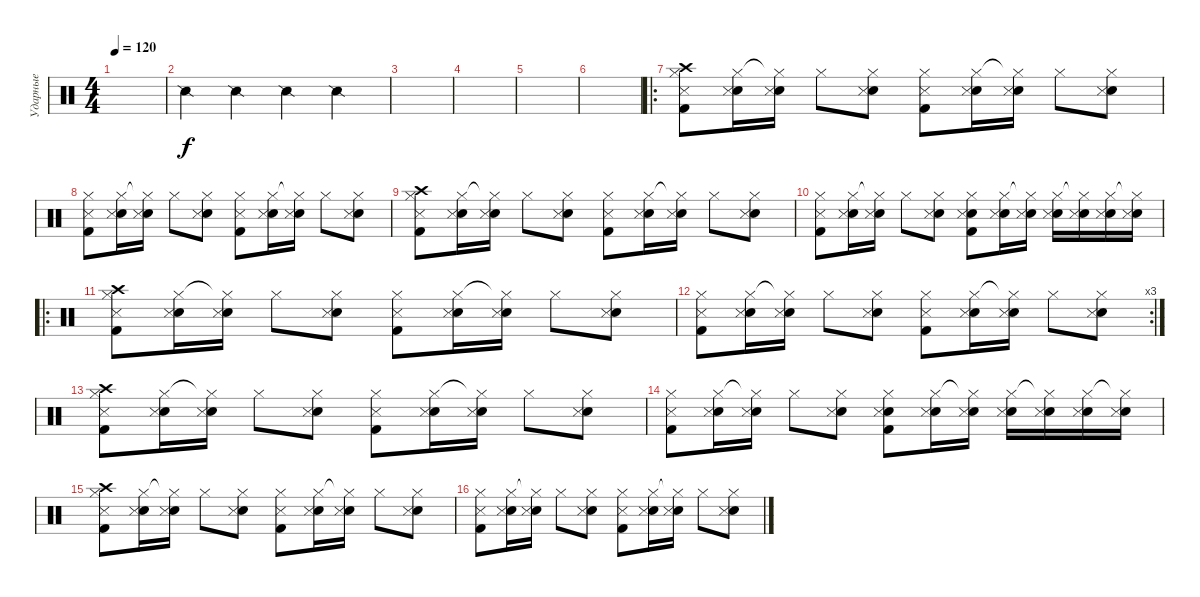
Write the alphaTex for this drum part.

\track ("Ударные" "Ударные") {instrument percussion}
\staff {score}
\articulation defaults
\ts (4 4)
\tempo 120
\clef neutral
\ks c
|
"Snare (side stick) 2".4 "Snare (side stick) 2".4 "Snare (side stick) 2".4 "Snare (side stick) 2".4 |
|
|
|
|
\ro
("Crash high (hit)" "Hi-Hat (closed)" "Kick (hit) 2" "Snare (side stick) 3").8 ("Hi-Hat (closed)" "Snare (hit) 2" "Snare (side stick) 3").16 ("Hi-Hat (closed)"{t} "Snare (hit) 2" "Snare (side stick) 3").16 "Hi-Hat (closed)".8 ("Hi-Hat (closed)" "Snare (hit) 2" "Snare (side stick) 3").8 ("Hi-Hat (closed)" "Kick (hit) 2" "Snare (side stick) 3").8 ("Hi-Hat (closed)" "Snare (hit) 2" "Snare (side stick) 3").16 ("Hi-Hat (closed)"{t} "Snare (hit) 2" "Snare (side stick) 3").16 "Hi-Hat (closed)".8 ("Hi-Hat (closed)" "Snare (hit) 2" "Snare (side stick) 3").8 |
("Hi-Hat (closed)" "Kick (hit) 2" "Snare (side stick) 3").8 ("Hi-Hat (closed)" "Snare (hit) 2" "Snare (side stick) 3").16 ("Hi-Hat (closed)"{t} "Snare (hit) 2" "Snare (side stick) 3").16 "Hi-Hat (closed)".8 ("Hi-Hat (closed)" "Snare (hit) 2" "Snare (side stick) 3").8 ("Hi-Hat (closed)" "Kick (hit) 2" "Snare (side stick) 3").8 ("Hi-Hat (closed)" "Snare (hit) 2" "Snare (side stick) 3").16 ("Hi-Hat (closed)"{t} "Snare (hit) 2" "Snare (side stick) 3").16 "Hi-Hat (closed)".8 ("Hi-Hat (closed)" "Snare (hit) 2" "Snare (side stick) 3").8 |
("Crash high (hit)" "Hi-Hat (closed)" "Kick (hit) 2" "Snare (side stick) 3").8 ("Hi-Hat (closed)" "Snare (hit) 2" "Snare (side stick) 3").16 ("Hi-Hat (closed)"{t} "Snare (hit) 2" "Snare (side stick) 3").16 "Hi-Hat (closed)".8 ("Hi-Hat (closed)" "Snare (hit) 2" "Snare (side stick) 3").8 ("Hi-Hat (closed)" "Kick (hit) 2" "Snare (side stick) 3").8 ("Hi-Hat (closed)" "Snare (hit) 2" "Snare (side stick) 3").16 ("Hi-Hat (closed)"{t} "Snare (hit) 2" "Snare (side stick) 3").16 "Hi-Hat (closed)".8 ("Hi-Hat (closed)" "Snare (hit) 2" "Snare (side stick) 3").8 |
("Hi-Hat (closed)" "Kick (hit) 2" "Snare (side stick) 3").8 ("Hi-Hat (closed)" "Snare (hit) 2" "Snare (side stick) 3").16 ("Hi-Hat (closed)"{t} "Snare (hit) 2" "Snare (side stick) 3").16 "Hi-Hat (closed)".8 ("Hi-Hat (closed)" "Snare (hit) 2" "Snare (side stick) 3").8 ("Hi-Hat (closed)" "Kick (hit) 2" "Snare (hit) 2" "Snare (side stick) 3").8 ("Hi-Hat (closed)" "Snare (hit) 2" "Snare (side stick) 3").16 ("Hi-Hat (closed)"{t} "Snare (hit) 2" "Snare (side stick) 3").16 ("Hi-Hat (closed)" "Snare (hit) 2" "Snare (side stick) 3").16 ("Hi-Hat (closed)"{t} "Snare (hit) 2" "Snare (side stick) 3").16 ("Hi-Hat (closed)" "Snare (hit) 2" "Snare (side stick) 3").16 ("Hi-Hat (closed)"{t} "Snare (hit) 2" "Snare (side stick) 3").16 |
\ro
("Crash high (hit)" "Hi-Hat (closed)" "Kick (hit) 2" "Snare (side stick) 3").8 ("Hi-Hat (closed)" "Snare (hit) 2" "Snare (side stick) 3").16 ("Hi-Hat (closed)"{t} "Snare (hit) 2" "Snare (side stick) 3").16 "Hi-Hat (closed)".8 ("Hi-Hat (closed)" "Snare (hit) 2" "Snare (side stick) 3").8 ("Hi-Hat (closed)" "Kick (hit) 2" "Snare (side stick) 3").8 ("Hi-Hat (closed)" "Snare (hit) 2" "Snare (side stick) 3").16 ("Hi-Hat (closed)"{t} "Snare (hit) 2" "Snare (side stick) 3").16 "Hi-Hat (closed)".8 ("Hi-Hat (closed)" "Snare (hit) 2" "Snare (side stick) 3").8 |
\rc 3
("Hi-Hat (closed)" "Kick (hit) 2" "Snare (side stick) 3").8 ("Hi-Hat (closed)" "Snare (hit) 2" "Snare (side stick) 3").16 ("Hi-Hat (closed)"{t} "Snare (hit) 2" "Snare (side stick) 3").16 "Hi-Hat (closed)".8 ("Hi-Hat (closed)" "Snare (hit) 2" "Snare (side stick) 3").8 ("Hi-Hat (closed)" "Kick (hit) 2" "Snare (side stick) 3").8 ("Hi-Hat (closed)" "Snare (hit) 2" "Snare (side stick) 3").16 ("Hi-Hat (closed)"{t} "Snare (hit) 2" "Snare (side stick) 3").16 "Hi-Hat (closed)".8 ("Hi-Hat (closed)" "Snare (hit) 2" "Snare (side stick) 3").8 |
("Crash high (hit)" "Hi-Hat (closed)" "Kick (hit) 2" "Snare (side stick) 3").8 ("Hi-Hat (closed)" "Snare (hit) 2" "Snare (side stick) 3").16 ("Hi-Hat (closed)"{t} "Snare (hit) 2" "Snare (side stick) 3").16 "Hi-Hat (closed)".8 ("Hi-Hat (closed)" "Snare (hit) 2" "Snare (side stick) 3").8 ("Hi-Hat (closed)" "Kick (hit) 2" "Snare (side stick) 3").8 ("Hi-Hat (closed)" "Snare (hit) 2" "Snare (side stick) 3").16 ("Hi-Hat (closed)"{t} "Snare (hit) 2" "Snare (side stick) 3").16 "Hi-Hat (closed)".8 ("Hi-Hat (closed)" "Snare (hit) 2" "Snare (side stick) 3").8 |
("Hi-Hat (closed)" "Kick (hit) 2" "Snare (side stick) 3").8 ("Hi-Hat (closed)" "Snare (hit) 2" "Snare (side stick) 3").16 ("Hi-Hat (closed)"{t} "Snare (hit) 2" "Snare (side stick) 3").16 "Hi-Hat (closed)".8 ("Hi-Hat (closed)" "Snare (hit) 2" "Snare (side stick) 3").8 ("Hi-Hat (closed)" "Kick (hit) 2" "Snare (hit) 2" "Snare (side stick) 3").8 ("Hi-Hat (closed)" "Snare (hit) 2" "Snare (side stick) 3").16 ("Hi-Hat (closed)"{t} "Snare (hit) 2" "Snare (side stick) 3").16 ("Hi-Hat (closed)" "Snare (hit) 2" "Snare (side stick) 3").16 ("Hi-Hat (closed)"{t} "Snare (hit) 2" "Snare (side stick) 3").16 ("Hi-Hat (closed)" "Snare (hit) 2" "Snare (side stick) 3").16 ("Hi-Hat (closed)"{t} "Snare (hit) 2" "Snare (side stick) 3").16 |
("Crash high (hit)" "Hi-Hat (closed)" "Kick (hit) 2" "Snare (side stick) 3").8 ("Hi-Hat (closed)" "Snare (hit) 2" "Snare (side stick) 3").16 ("Hi-Hat (closed)"{t} "Snare (hit) 2" "Snare (side stick) 3").16 "Hi-Hat (closed)".8 ("Hi-Hat (closed)" "Snare (hit) 2" "Snare (side stick) 3").8 ("Hi-Hat (closed)" "Kick (hit) 2" "Snare (side stick) 3").8 ("Hi-Hat (closed)" "Snare (hit) 2" "Snare (side stick) 3").16 ("Hi-Hat (closed)"{t} "Snare (hit) 2" "Snare (side stick) 3").16 "Hi-Hat (closed)".8 ("Hi-Hat (closed)" "Snare (hit) 2" "Snare (side stick) 3").8 |
("Hi-Hat (closed)" "Kick (hit) 2" "Snare (side stick) 3").8 ("Hi-Hat (closed)" "Snare (hit) 2" "Snare (side stick) 3").16 ("Hi-Hat (closed)"{t} "Snare (hit) 2" "Snare (side stick) 3").16 "Hi-Hat (closed)".8 ("Hi-Hat (closed)" "Snare (hit) 2" "Snare (side stick) 3").8 ("Hi-Hat (closed)" "Kick (hit) 2" "Snare (side stick) 3").8 ("Hi-Hat (closed)" "Snare (hit) 2" "Snare (side stick) 3").16 ("Hi-Hat (closed)"{t} "Snare (hit) 2" "Snare (side stick) 3").16 "Hi-Hat (closed)".8 ("Hi-Hat (closed)" "Snare (hit) 2" "Snare (side stick) 3").8
